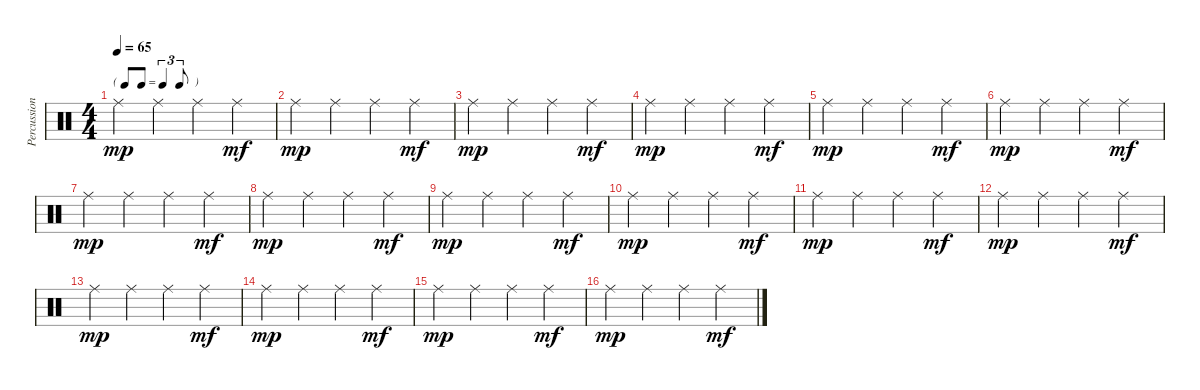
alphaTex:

\track ("Percussion" "Percussion") {instrument percussion}
\staff {score}
\articulation defaults
\ts (4 4)
\tf triplet8th
\tempo 65
\clef neutral
\ks c "Ride (middle)".4{dy mp} "Ride (middle)".4 "Ride (middle)".4 "Ride (middle)".4{dy mf}
|
"Ride (middle)".4{dy mp} "Ride (middle)".4 "Ride (middle)".4 "Ride (middle)".4{dy mf} |
"Ride (middle)".4{dy mp} "Ride (middle)".4 "Ride (middle)".4 "Ride (middle)".4{dy mf} |
"Ride (middle)".4{dy mp} "Ride (middle)".4 "Ride (middle)".4 "Ride (middle)".4{dy mf} |
"Ride (middle)".4{dy mp} "Ride (middle)".4 "Ride (middle)".4 "Ride (middle)".4{dy mf} |
"Ride (middle)".4{dy mp} "Ride (middle)".4 "Ride (middle)".4 "Ride (middle)".4{dy mf} |
"Ride (middle)".4{dy mp} "Ride (middle)".4 "Ride (middle)".4 "Ride (middle)".4{dy mf} |
"Ride (middle)".4{dy mp} "Ride (middle)".4 "Ride (middle)".4 "Ride (middle)".4{dy mf} |
"Ride (middle)".4{dy mp} "Ride (middle)".4 "Ride (middle)".4 "Ride (middle)".4{dy mf} |
"Ride (middle)".4{dy mp} "Ride (middle)".4 "Ride (middle)".4 "Ride (middle)".4{dy mf} |
"Ride (middle)".4{dy mp} "Ride (middle)".4 "Ride (middle)".4 "Ride (middle)".4{dy mf} |
"Ride (middle)".4{dy mp} "Ride (middle)".4 "Ride (middle)".4 "Ride (middle)".4{dy mf} |
"Ride (middle)".4{dy mp} "Ride (middle)".4 "Ride (middle)".4 "Ride (middle)".4{dy mf} |
"Ride (middle)".4{dy mp} "Ride (middle)".4 "Ride (middle)".4 "Ride (middle)".4{dy mf} |
"Ride (middle)".4{dy mp} "Ride (middle)".4 "Ride (middle)".4 "Ride (middle)".4{dy mf} |
"Ride (middle)".4{dy mp} "Ride (middle)".4 "Ride (middle)".4 "Ride (middle)".4{dy mf}
